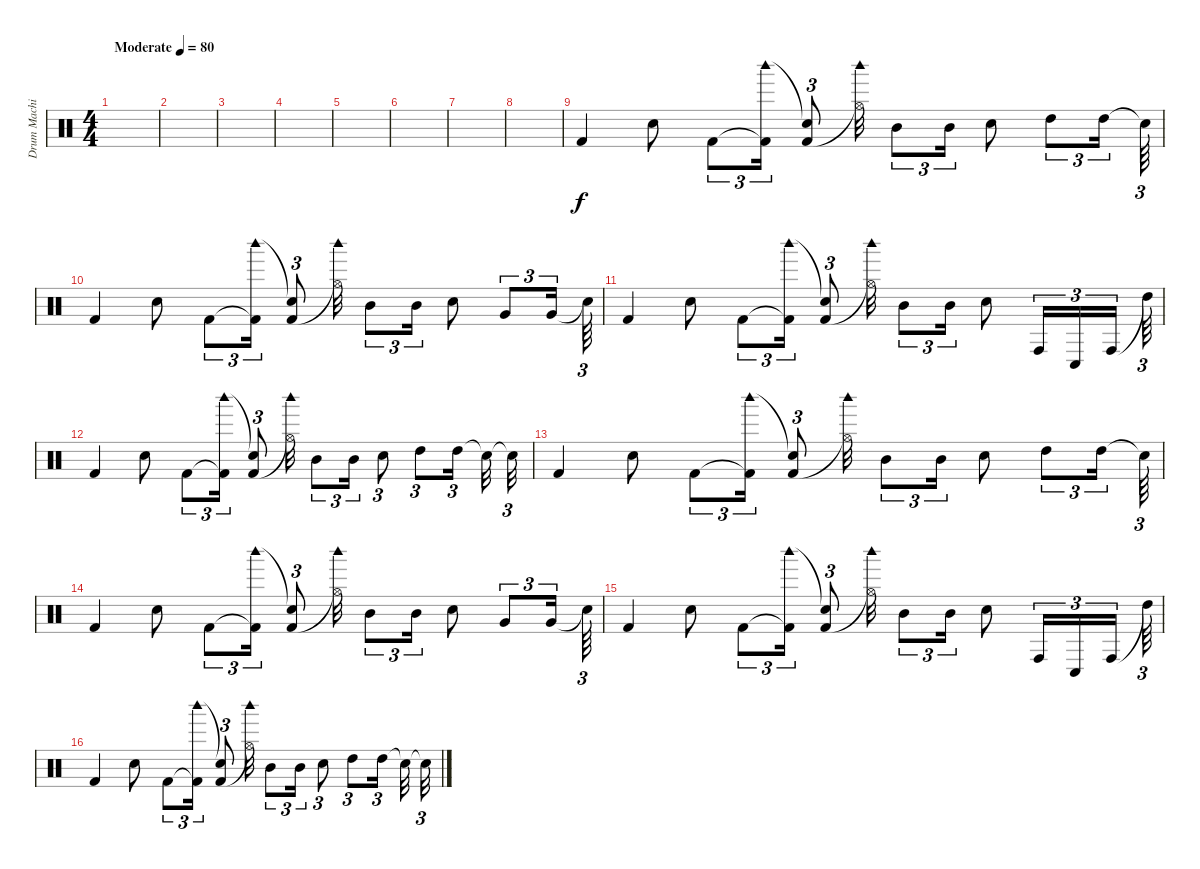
\track ("Drum Machine" "Drum Machi") {instrument percussion}
\staff {score}
\articulation defaults
\ts (4 4)
\tempo (80 "Moderate")
\clef neutral
\ks c
|
|
|
|
|
|
|
|
"Kick (hit) 2".4 "Electric Snare (hit)".8 "Kick (hit) 2".8{tu (3 2)} ("Kick (hit) 2"{t} "Woodblock high (hit)").16{tu (3 2)} ("Kick (hit) 2" "Snare (hit)"{t}).8{tu (3 2)} ("Hi-Hat (open)"{t} "Woodblock high (hit)").32 "Mid Tom (hit)".8{tu (3 2)} "Mid Tom (hit)".16{tu (3 2)} "Electric Snare (hit)".8 "High Tom (hit)".8{tu (3 2)} "High Tom (hit)".16{tu (3 2)} "Snare (hit)"{t}.64{tu (3 2)} |
"Kick (hit) 2".4 "Electric Snare (hit)".8 "Kick (hit) 2".8{tu (3 2)} ("Kick (hit) 2"{t} "Woodblock high (hit)").16{tu (3 2)} ("Kick (hit) 2" "Snare (hit)"{t}).8{tu (3 2)} ("Hi-Hat (open)"{t} "Woodblock high (hit)").32 "Mid Tom (hit)".8{tu (3 2)} "Mid Tom (hit)".16{tu (3 2)} "Electric Snare (hit)".8 "Very Low Tom (hit)".8{tu (3 2)} "Very Low Tom (hit)".16{tu (3 2)} "Snare (hit)"{t}.64{tu (3 2)} |
"Kick (hit) 2".4 "Electric Snare (hit)".8 "Kick (hit) 2".8{tu (3 2)} ("Kick (hit) 2"{t} "Woodblock high (hit)").16{tu (3 2)} ("Kick (hit) 2" "Snare (hit)"{t}).8{tu (3 2)} ("Hi-Hat (open)"{t} "Woodblock high (hit)").32 "Mid Tom (hit)".8{tu (3 2)} "Mid Tom (hit)".16{tu (3 2)} "Electric Snare (hit)".8 "Conga high (hit)".16{tu (3 2)} "Conga low (hit)".16{tu (3 2)} "Conga high (hit)".16{tu (3 2) beam splitsecondary} "High Tom (hit)"{t}.64{tu (3 2)} |
"Kick (hit) 2".4 "Electric Snare (hit)".8 "Kick (hit) 2".8{tu (3 2)} ("Kick (hit) 2"{t} "Woodblock high (hit)").16{tu (3 2)} ("Kick (hit) 2" "Snare (hit)"{t}).8{tu (3 2)} ("Hi-Hat (open)"{t} "Woodblock high (hit)").32 "Mid Tom (hit)".8{tu (3 2)} "Mid Tom (hit)".16{tu (3 2)} "Electric Snare (hit)".8{tu (3 2)} "High Tom (hit)".8{tu (3 2)} "High Tom (hit)".16{tu (3 2) beam splitsecondary} "Snare (hit)"{t}.32 "Snare (hit)"{t}.32{tu (3 2)} |
"Kick (hit) 2".4 "Electric Snare (hit)".8 "Kick (hit) 2".8{tu (3 2)} ("Kick (hit) 2"{t} "Woodblock high (hit)").16{tu (3 2)} ("Kick (hit) 2" "Snare (hit)"{t}).8{tu (3 2)} ("Hi-Hat (open)"{t} "Woodblock high (hit)").32 "Mid Tom (hit)".8{tu (3 2)} "Mid Tom (hit)".16{tu (3 2)} "Electric Snare (hit)".8 "High Tom (hit)".8{tu (3 2)} "High Tom (hit)".16{tu (3 2)} "Snare (hit)"{t}.64{tu (3 2)} |
"Kick (hit) 2".4 "Electric Snare (hit)".8 "Kick (hit) 2".8{tu (3 2)} ("Kick (hit) 2"{t} "Woodblock high (hit)").16{tu (3 2)} ("Kick (hit) 2" "Snare (hit)"{t}).8{tu (3 2)} ("Hi-Hat (open)"{t} "Woodblock high (hit)").32 "Mid Tom (hit)".8{tu (3 2)} "Mid Tom (hit)".16{tu (3 2)} "Electric Snare (hit)".8 "Very Low Tom (hit)".8{tu (3 2)} "Very Low Tom (hit)".16{tu (3 2)} "Snare (hit)"{t}.64{tu (3 2)} |
"Kick (hit) 2".4 "Electric Snare (hit)".8 "Kick (hit) 2".8{tu (3 2)} ("Kick (hit) 2"{t} "Woodblock high (hit)").16{tu (3 2)} ("Kick (hit) 2" "Snare (hit)"{t}).8{tu (3 2)} ("Hi-Hat (open)"{t} "Woodblock high (hit)").32 "Mid Tom (hit)".8{tu (3 2)} "Mid Tom (hit)".16{tu (3 2)} "Electric Snare (hit)".8 "Conga high (hit)".16{tu (3 2)} "Conga low (hit)".16{tu (3 2)} "Conga high (hit)".16{tu (3 2) beam splitsecondary} "High Tom (hit)"{t}.64{tu (3 2)} |
"Kick (hit) 2".4 "Electric Snare (hit)".8 "Kick (hit) 2".8{tu (3 2)} ("Kick (hit) 2"{t} "Woodblock high (hit)").16{tu (3 2)} ("Kick (hit) 2" "Snare (hit)"{t}).8{tu (3 2)} ("Hi-Hat (open)"{t} "Woodblock high (hit)").32 "Mid Tom (hit)".8{tu (3 2)} "Mid Tom (hit)".16{tu (3 2)} "Electric Snare (hit)".8{tu (3 2)} "High Tom (hit)".8{tu (3 2)} "High Tom (hit)".16{tu (3 2) beam splitsecondary} "Snare (hit)"{t}.32 "Snare (hit)"{t}.32{tu (3 2)}
